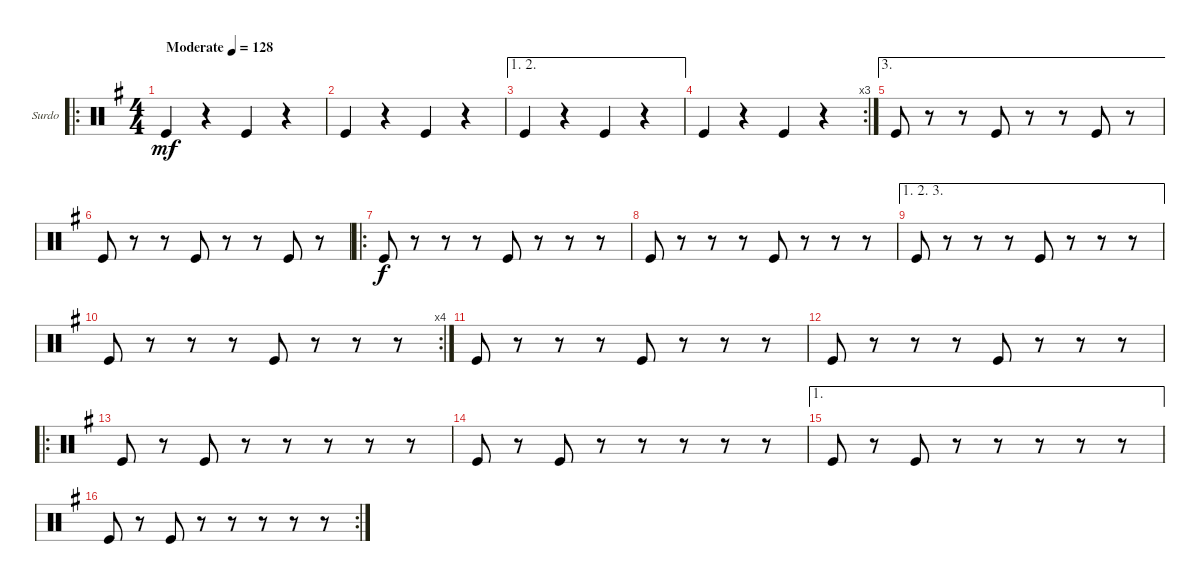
\bracketExtendMode groupsimilarinstruments
\firstSystemTrackNameOrientation horizontal
\otherSystemsTrackNameOrientation horizontal
\track ("Surdo" "Surdo") {instrument percussion}
\staff {score}
\articulation defaults
\ro
\ts (4 4)
\beaming (8 2 2 2 2)
\tempo (128 "Moderate")
\clef neutral
\ks eminor "Kick (hit)".4{dy mf}
r.4 "Kick (hit)".4 r.4 |
"Kick (hit)".4 r.4 "Kick (hit)".4 r.4 |
\ae (1 2)
"Kick (hit)".4 r.4 "Kick (hit)".4 r.4 |
\rc 3 "Kick (hit)".4
r.4 "Kick (hit)".4 r.4 |
\ae 3 "Kick (hit)".8
r.8 r.8 "Kick (hit)".8 r.8 r.8 "Kick (hit)".8 r.8 |
"Kick (hit)".8 r.8 r.8 "Kick (hit)".8 r.8 r.8 "Kick (hit)".8 r.8 |
\ro "Kick (hit)".8{dy f}
r.8 r.8 r.8 "Kick (hit)".8 r.8 r.8 r.8 |
"Kick (hit)".8 r.8 r.8 r.8 "Kick (hit)".8 r.8 r.8 r.8 |
\ae (1 2 3)
"Kick (hit)".8 r.8 r.8 r.8 "Kick (hit)".8 r.8 r.8 r.8 |
\rc 4 "Kick (hit)".8
r.8 r.8 r.8 "Kick (hit)".8 r.8 r.8 r.8 |
"Kick (hit)".8 r.8 r.8 r.8 "Kick (hit)".8 r.8 r.8 r.8 |
"Kick (hit)".8 r.8 r.8 r.8 "Kick (hit)".8 r.8 r.8 r.8 |
\ro "Kick (hit)".8
r.8 "Kick (hit)".8 r.8 r.8 r.8 r.8 r.8 |
"Kick (hit)".8 r.8 "Kick (hit)".8 r.8 r.8 r.8 r.8 r.8 |
\ae 1 "Kick (hit)".8
r.8 "Kick (hit)".8 r.8 r.8 r.8 r.8 r.8 |
\rc 2 "Kick (hit)".8
r.8 "Kick (hit)".8 r.8 r.8 r.8 r.8 r.8
